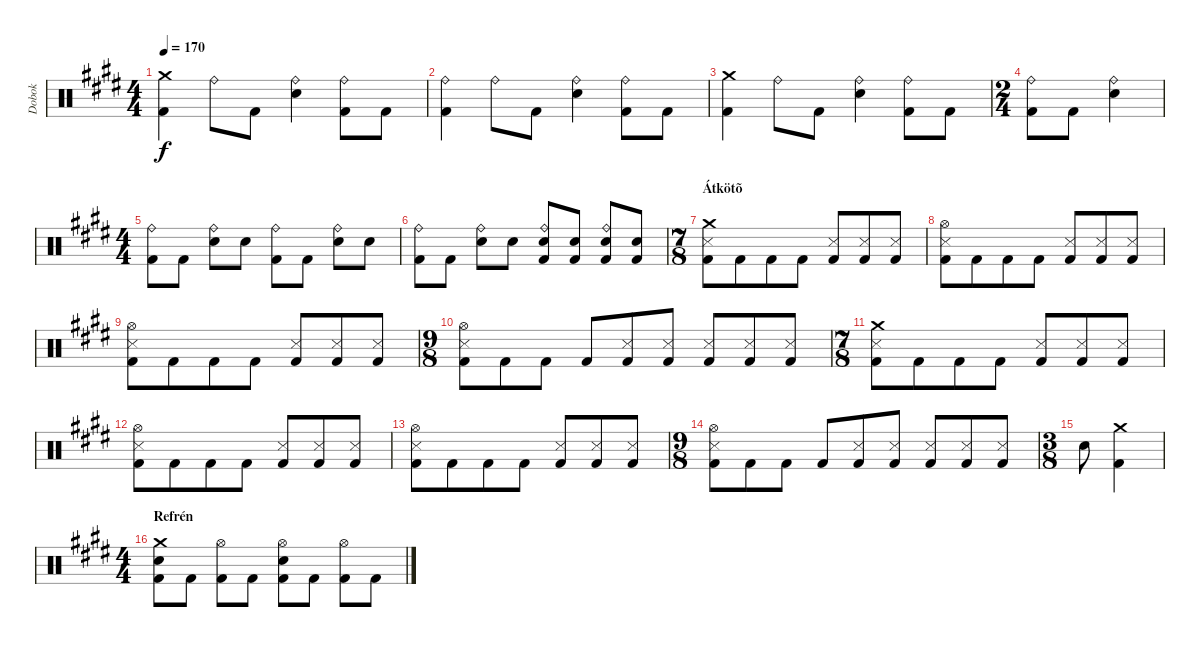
\track ("Dobok" "Dobok") {instrument percussion}
\staff {score}
\articulation defaults
\ts (4 4)
\tempo 170
\clef neutral
\ks c#minor
("Crash medium (hit)" "Kick (hit) 2").4{dy f} "Ride (bell)".8 "Kick (hit) 2".8 ("Ride (bell)" "Snare (hit) 2").4 ("Ride (bell)" "Kick (hit) 2").8 "Kick (hit) 2".8 |
("Ride (bell)" "Kick (hit) 2").4 "Ride (bell)".8 "Kick (hit) 2".8 ("Ride (bell)" "Snare (hit) 2").4 ("Ride (bell)" "Kick (hit) 2").8 "Kick (hit) 2".8 |
("Crash medium (hit)" "Kick (hit) 2").4 "Ride (bell)".8 "Kick (hit) 2".8 ("Ride (bell)" "Snare (hit) 2").4 ("Ride (bell)" "Kick (hit) 2").8 "Kick (hit) 2".8 |
\ts (2 4)
("Ride (bell)" "Kick (hit) 2").8 "Kick (hit) 2".8 ("Ride (bell)" "Snare (hit) 2").4 |
\ts (4 4)
("Ride (bell)" "Kick (hit) 2").8 "Kick (hit) 2".8 ("Ride (bell)" "Snare (hit) 2").8 "Snare (hit) 2".8 ("Ride (bell)" "Kick (hit) 2").8 "Kick (hit) 2".8 ("Ride (bell)" "Snare (hit) 2").8 "Snare (hit) 2".8 |
("Ride (bell)" "Kick (hit) 2").8 "Kick (hit) 2".8 ("Ride (bell)" "Snare (hit) 2").8 "Snare (hit) 2".8 ("Ride (bell)" "Snare (hit) 2" "Kick (hit) 2").8 ("Snare (hit) 2" "Kick (hit) 2").8 ("Ride (bell)" "Snare (hit) 2" "Kick (hit) 2").8 ("Snare (hit) 2" "Kick (hit) 2").8 |
\ts (7 8)
\section ("" "Átkötõ")
("Crash medium (hit)" "Snare (side stick) 3" "Kick (hit) 2").8 "Kick (hit) 2".8 "Kick (hit) 2".8 "Kick (hit) 2".8 ("Snare (side stick) 3" "Kick (hit) 2").8 ("Snare (side stick) 3" "Kick (hit) 2").8 ("Snare (side stick) 3" "Kick (hit) 2").8 |
("Hi-Hat (open)" "Snare (side stick) 3" "Kick (hit) 2").8 "Kick (hit) 2".8 "Kick (hit) 2".8 "Kick (hit) 2".8 ("Snare (side stick) 3" "Kick (hit) 2").8 ("Snare (side stick) 3" "Kick (hit) 2").8 ("Snare (side stick) 3" "Kick (hit) 2").8 |
("Hi-Hat (open)" "Snare (side stick) 3" "Kick (hit) 2").8 "Kick (hit) 2".8 "Kick (hit) 2".8 "Kick (hit) 2".8 ("Snare (side stick) 3" "Kick (hit) 2").8 ("Snare (side stick) 3" "Kick (hit) 2").8 ("Snare (side stick) 3" "Kick (hit) 2").8 |
\ts (9 8)
("Hi-Hat (open)" "Snare (side stick) 3" "Kick (hit) 2").8 "Kick (hit) 2".8 "Kick (hit) 2".8 "Kick (hit) 2".8 ("Snare (side stick) 3" "Kick (hit) 2").8 ("Snare (side stick) 3" "Kick (hit) 2").8 ("Snare (side stick) 3" "Kick (hit) 2").8 ("Snare (side stick) 3" "Kick (hit) 2").8 ("Snare (side stick) 3" "Kick (hit) 2").8 |
\ts (7 8)
("Crash medium (hit)" "Snare (side stick) 3" "Kick (hit) 2").8 "Kick (hit) 2".8 "Kick (hit) 2".8 "Kick (hit) 2".8 ("Snare (side stick) 3" "Kick (hit) 2").8 ("Snare (side stick) 3" "Kick (hit) 2").8 ("Snare (side stick) 3" "Kick (hit) 2").8 |
("Hi-Hat (open)" "Snare (side stick) 3" "Kick (hit) 2").8 "Kick (hit) 2".8 "Kick (hit) 2".8 "Kick (hit) 2".8 ("Snare (side stick) 3" "Kick (hit) 2").8 ("Snare (side stick) 3" "Kick (hit) 2").8 ("Snare (side stick) 3" "Kick (hit) 2").8 |
("Hi-Hat (open)" "Snare (side stick) 3" "Kick (hit) 2").8 "Kick (hit) 2".8 "Kick (hit) 2".8 "Kick (hit) 2".8 ("Snare (side stick) 3" "Kick (hit) 2").8 ("Snare (side stick) 3" "Kick (hit) 2").8 ("Snare (side stick) 3" "Kick (hit) 2").8 |
\ts (9 8)
("Hi-Hat (open)" "Snare (side stick) 3" "Kick (hit) 2").8 "Kick (hit) 2".8 "Kick (hit) 2".8 "Kick (hit) 2".8 ("Snare (side stick) 3" "Kick (hit) 2").8 ("Snare (side stick) 3" "Kick (hit) 2").8 ("Snare (side stick) 3" "Kick (hit) 2").8 ("Snare (side stick) 3" "Kick (hit) 2").8 ("Snare (side stick) 3" "Kick (hit) 2").8 |
\ts (3 8)
"Snare (hit) 2".8 ("Crash medium (hit)" "Kick (hit) 2").4 |
\ts (4 4)
\section ("" "Refrén")
("Crash medium (hit)" "Snare (hit) 2" "Kick (hit) 2").8 "Kick (hit) 2".8 ("Hi-Hat (open)" "Kick (hit) 2").8 "Kick (hit) 2".8 ("Hi-Hat (open)" "Snare (hit) 2" "Kick (hit) 2").8 "Kick (hit) 2".8 ("Hi-Hat (open)" "Kick (hit) 2").8 "Kick (hit) 2".8
